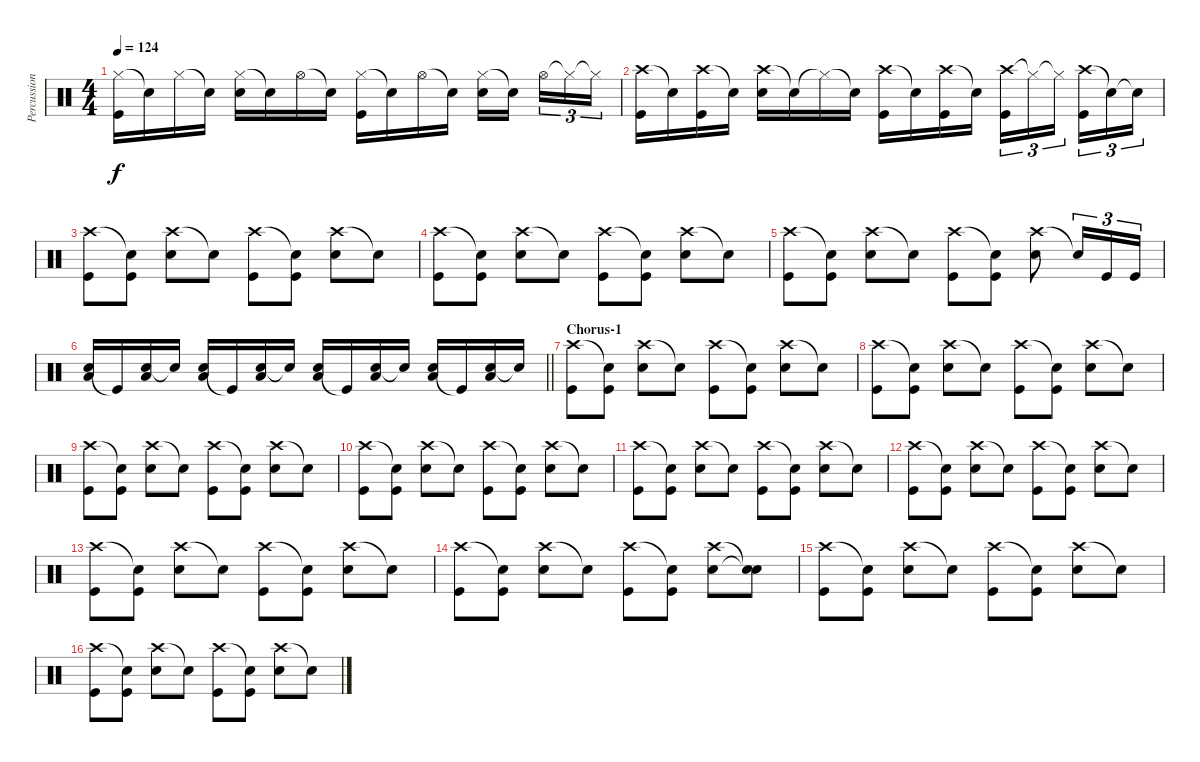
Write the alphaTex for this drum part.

\track ("Percussion" "Percussion") {instrument percussion}
\staff {score}
\articulation defaults
\ts (4 4)
\tempo 124
\clef neutral
\ks c
("Hi-Hat (closed)" "Kick (hit)").16{dy f} "Snare (hit)"{t}.16 "Hi-Hat (closed)".16 "Snare (hit)"{t}.16 ("Hi-Hat (closed)" "Electric Snare (hit)").16 "Snare (hit)"{t}.16 "Hi-Hat (open)".16 "Snare (hit)"{t}.16 ("Hi-Hat (closed)" "Kick (hit)").16 "Snare (hit)"{t}.16 "Hi-Hat (open)".16 "Snare (hit)"{t}.16 ("Hi-Hat (closed)" "Electric Snare (hit)").16 "Snare (hit)"{t}.16 "Hi-Hat (open)".16{tu (3 2)} "Hi-Hat (closed)"{t}.16{tu (3 2)} "Hi-Hat (closed)"{t}.16{tu (3 2)} |
("Crash high (hit)" "Kick (hit)").16 "Snare (hit)"{t}.16 ("Crash high (hit)" "Kick (hit)").16 "Snare (hit)"{t}.16 ("Crash high (hit)" "Electric Snare (hit)").16 "Snare (hit)"{t}.16 "Hi-Hat (closed)"{t}.16 "Snare (hit)"{t}.16 ("Crash high (hit)" "Kick (hit)").16 "Snare (hit)"{t}.16 ("Crash high (hit)" "Kick (hit)").16 "Snare (hit)"{t}.16 ("Crash high (hit)" "Kick (hit)").16{tu (3 2)} "Hi-Hat (closed)"{t}.16{tu (3 2)} "Hi-Hat (closed)"{t}.16{tu (3 2)} ("Crash high (hit)" "Kick (hit)").16{tu (3 2)} "Snare (hit)"{t}.16{tu (3 2)} "Snare (hit)"{t}.16{tu (3 2)} |
("Crash high (hit)" "Kick (hit)").8 ("Snare (hit)"{t} "Kick (hit)").8 ("Crash high (hit)" "Electric Snare (hit)").8 "Snare (hit)"{t}.8 ("Crash high (hit)" "Kick (hit)").8 ("Snare (hit)"{t} "Kick (hit)").8 ("Crash high (hit)" "Electric Snare (hit)").8 "Snare (hit)"{t}.8 |
("Crash high (hit)" "Kick (hit)").8 ("Snare (hit)"{t} "Kick (hit)").8 ("Crash high (hit)" "Electric Snare (hit)").8 "Snare (hit)"{t}.8 ("Crash high (hit)" "Kick (hit)").8 ("Snare (hit)"{t} "Kick (hit)").8 ("Crash high (hit)" "Electric Snare (hit)").8 "Snare (hit)"{t}.8 |
("Crash high (hit)" "Kick (hit)").8 ("Snare (hit)"{t} "Kick (hit)").8 ("Crash high (hit)" "Electric Snare (hit)").8 "Snare (hit)"{t}.8 ("Crash high (hit)" "Kick (hit)").8 ("Snare (hit)"{t} "Kick (hit)").8 ("Crash high (hit)" "Electric Snare (hit)").8 "Snare (hit)"{t}.16{tu (3 2)} "Kick (hit)".16{tu (3 2)} "Kick (hit)".16{tu (3 2)} |
\barLineRight lightlight
("Electric Snare (hit)" "Low Floor Tom (hit)").16 "Kick (hit)"{t}.16 ("Electric Snare (hit)" "Low Floor Tom (hit)").16 "Snare (hit)"{t}.16 ("Electric Snare (hit)" "Low Floor Tom (hit)").16 "Kick (hit)"{t}.16 ("Electric Snare (hit)" "Low Floor Tom (hit)").16 "Snare (hit)"{t}.16 ("Electric Snare (hit)" "Low Floor Tom (hit)").16 "Kick (hit)"{t}.16 ("Electric Snare (hit)" "Low Floor Tom (hit)").16 "Snare (hit)"{t}.16 ("Electric Snare (hit)" "Low Floor Tom (hit)").16 "Kick (hit)"{t}.16 ("Electric Snare (hit)" "Low Floor Tom (hit)").16 "Snare (hit)"{t}.16 |
\section ("" "Chorus-1")
("Crash high (hit)" "Kick (hit)").8 ("Snare (hit)"{t} "Kick (hit)").8 ("Crash high (hit)" "Electric Snare (hit)").8 "Snare (hit)"{t}.8 ("Crash high (hit)" "Kick (hit)").8 ("Snare (hit)"{t} "Kick (hit)").8 ("Crash high (hit)" "Electric Snare (hit)").8 "Snare (hit)"{t}.8 |
("Crash high (hit)" "Kick (hit)").8 ("Snare (hit)"{t} "Kick (hit)").8 ("Crash high (hit)" "Electric Snare (hit)").8 "Snare (hit)"{t}.8 ("Crash high (hit)" "Kick (hit)").8 ("Snare (hit)"{t} "Kick (hit)").8 ("Crash high (hit)" "Electric Snare (hit)").8 "Snare (hit)"{t}.8 |
("Crash high (hit)" "Kick (hit)").8 ("Snare (hit)"{t} "Kick (hit)").8 ("Crash high (hit)" "Electric Snare (hit)").8 "Snare (hit)"{t}.8 ("Crash high (hit)" "Kick (hit)").8 ("Snare (hit)"{t} "Kick (hit)").8 ("Crash high (hit)" "Electric Snare (hit)").8 "Snare (hit)"{t}.8 |
("Crash high (hit)" "Kick (hit)").8 ("Snare (hit)"{t} "Kick (hit)").8 ("Crash high (hit)" "Electric Snare (hit)").8 "Snare (hit)"{t}.8 ("Crash high (hit)" "Kick (hit)").8 ("Snare (hit)"{t} "Kick (hit)").8 ("Crash high (hit)" "Electric Snare (hit)").8 "Snare (hit)"{t}.8 |
("Crash high (hit)" "Kick (hit)").8 ("Snare (hit)"{t} "Kick (hit)").8 ("Crash high (hit)" "Electric Snare (hit)").8 "Snare (hit)"{t}.8 ("Crash high (hit)" "Kick (hit)").8 ("Snare (hit)"{t} "Kick (hit)").8 ("Crash high (hit)" "Electric Snare (hit)").8 "Snare (hit)"{t}.8 |
("Crash high (hit)" "Kick (hit)").8 ("Snare (hit)"{t} "Kick (hit)").8 ("Crash high (hit)" "Electric Snare (hit)").8 "Snare (hit)"{t}.8 ("Crash high (hit)" "Kick (hit)").8 ("Snare (hit)"{t} "Kick (hit)").8 ("Crash high (hit)" "Electric Snare (hit)").8 "Snare (hit)"{t}.8 |
("Crash high (hit)" "Kick (hit)").8 ("Snare (hit)"{t} "Kick (hit)").8 ("Crash high (hit)" "Electric Snare (hit)").8 "Snare (hit)"{t}.8 ("Crash high (hit)" "Kick (hit)").8 ("Snare (hit)"{t} "Kick (hit)").8 ("Crash high (hit)" "Electric Snare (hit)").8 "Snare (hit)"{t}.8 |
("Crash high (hit)" "Kick (hit)").8 ("Snare (hit)"{t} "Kick (hit)").8 ("Crash high (hit)" "Electric Snare (hit)").8 "Snare (hit)"{t}.8 ("Crash high (hit)" "Kick (hit)").8 ("Snare (hit)"{t} "Kick (hit)").8 ("Crash high (hit)" "Electric Snare (hit)").8 ("Snare (hit)"{t} "Electric Snare (hit)"{t}).8 |
("Crash high (hit)" "Kick (hit)").8 ("Snare (hit)"{t} "Kick (hit)").8 ("Crash high (hit)" "Electric Snare (hit)").8 "Snare (hit)"{t}.8 ("Crash high (hit)" "Kick (hit)").8 ("Snare (hit)"{t} "Kick (hit)").8 ("Crash high (hit)" "Electric Snare (hit)").8 "Snare (hit)"{t}.8 |
("Crash high (hit)" "Kick (hit)").8 ("Snare (hit)"{t} "Kick (hit)").8 ("Crash high (hit)" "Electric Snare (hit)").8 "Snare (hit)"{t}.8 ("Crash high (hit)" "Kick (hit)").8 ("Snare (hit)"{t} "Kick (hit)").8 ("Crash high (hit)" "Electric Snare (hit)").8 "Snare (hit)"{t}.8
